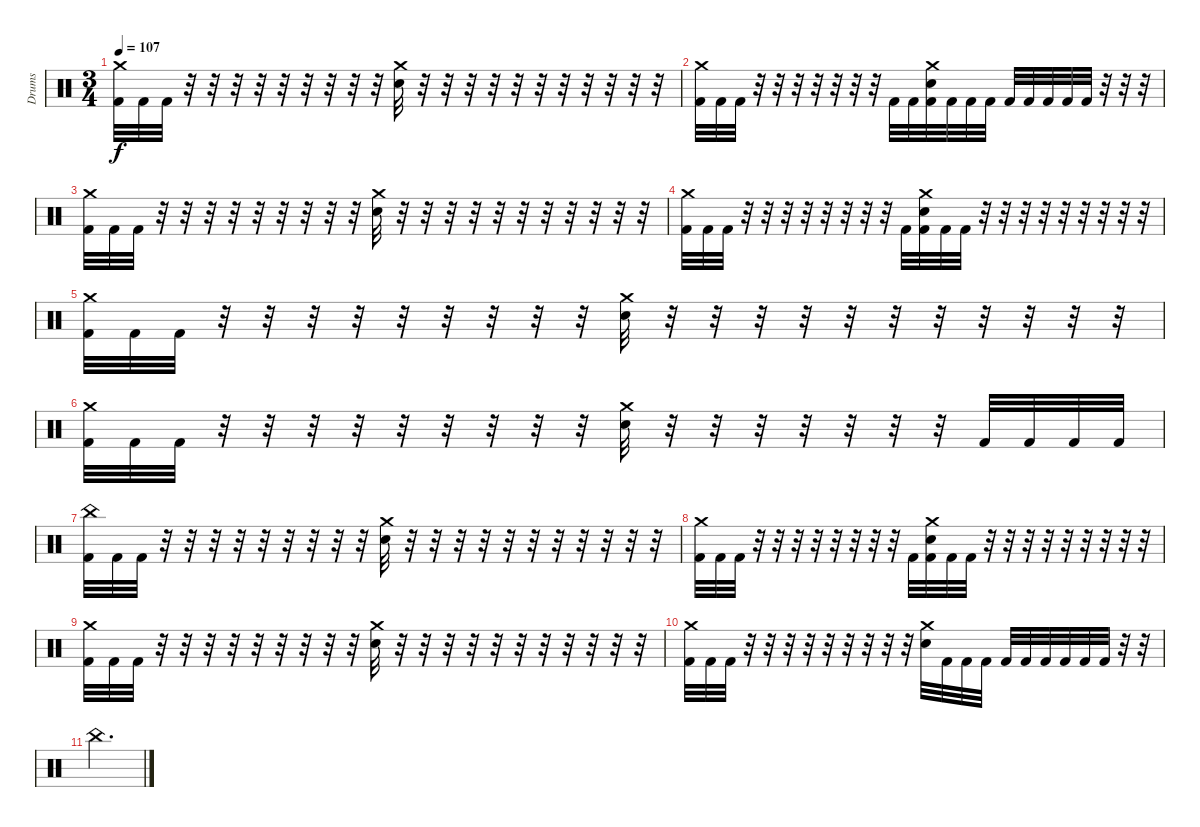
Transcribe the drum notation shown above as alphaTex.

\track ("Drums" "Drums") {instrument percussion}
\staff {score}
\articulation defaults
\ts (3 4)
\tempo 107
\clef neutral
\ks c
("Crash medium (hit)" "Kick (hit) 2").32{dy f} "Kick (hit) 2".32 "Kick (hit) 2".32 r.32 r.32 r.32 r.32 r.32 r.32 r.32 r.32 r.32 ("Crash medium (hit)" "Electric Snare (hit)").32 r.32 r.32 r.32 r.32 r.32 r.32 r.32 r.32 r.32 r.32 r.32 |
("Crash medium (hit)" "Kick (hit) 2").32 "Kick (hit) 2".32 "Kick (hit) 2".32 r.32 r.32 r.32 r.32 r.32 r.32 r.32 "Kick (hit) 2".32 "Kick (hit) 2".32 ("Crash medium (hit)" "Electric Snare (hit)" "Kick (hit) 2").32 "Kick (hit) 2".32 "Kick (hit) 2".32 "Kick (hit) 2".32 "Kick (hit) 2".32 "Kick (hit) 2".32 "Kick (hit) 2".32 "Kick (hit) 2".32 "Kick (hit) 2".32 r.32 r.32 r.32 |
("Crash medium (hit)" "Kick (hit) 2").32 "Kick (hit) 2".32 "Kick (hit) 2".32 r.32 r.32 r.32 r.32 r.32 r.32 r.32 r.32 r.32 ("Crash medium (hit)" "Electric Snare (hit)").32 r.32 r.32 r.32 r.32 r.32 r.32 r.32 r.32 r.32 r.32 r.32 |
("Crash medium (hit)" "Kick (hit) 2").32 "Kick (hit) 2".32 "Kick (hit) 2".32 r.32 r.32 r.32 r.32 r.32 r.32 r.32 r.32 "Kick (hit) 2".32 ("Crash medium (hit)" "Electric Snare (hit)" "Kick (hit) 2").32 "Kick (hit) 2".32 "Kick (hit) 2".32 r.32 r.32 r.32 r.32 r.32 r.32 r.32 r.32 r.32 |
("Crash medium (hit)" "Kick (hit) 2").32 "Kick (hit) 2".32 "Kick (hit) 2".32 r.32 r.32 r.32 r.32 r.32 r.32 r.32 r.32 r.32 ("Crash medium (hit)" "Electric Snare (hit)").32 r.32 r.32 r.32 r.32 r.32 r.32 r.32 r.32 r.32 r.32 r.32 |
("Crash medium (hit)" "Kick (hit) 2").32 "Kick (hit) 2".32 "Kick (hit) 2".32 r.32 r.32 r.32 r.32 r.32 r.32 r.32 r.32 r.32 ("Crash medium (hit)" "Electric Snare (hit)").32 r.32 r.32 r.32 r.32 r.32 r.32 r.32 "Kick (hit) 2".32 "Kick (hit) 2".32 "Kick (hit) 2".32 "Kick (hit) 2".32 |
("China (hit)" "Kick (hit) 2").32 "Kick (hit) 2".32 "Kick (hit) 2".32 r.32 r.32 r.32 r.32 r.32 r.32 r.32 r.32 r.32 ("Crash medium (hit)" "Electric Snare (hit)").32 r.32 r.32 r.32 r.32 r.32 r.32 r.32 r.32 r.32 r.32 r.32 |
("Crash medium (hit)" "Kick (hit) 2").32 "Kick (hit) 2".32 "Kick (hit) 2".32 r.32 r.32 r.32 r.32 r.32 r.32 r.32 r.32 "Kick (hit) 2".32 ("Crash medium (hit)" "Electric Snare (hit)" "Kick (hit) 2").32 "Kick (hit) 2".32 "Kick (hit) 2".32 r.32 r.32 r.32 r.32 r.32 r.32 r.32 r.32 r.32 |
("Crash medium (hit)" "Kick (hit) 2").32 "Kick (hit) 2".32 "Kick (hit) 2".32 r.32 r.32 r.32 r.32 r.32 r.32 r.32 r.32 r.32 ("Crash medium (hit)" "Electric Snare (hit)").32 r.32 r.32 r.32 r.32 r.32 r.32 r.32 r.32 r.32 r.32 r.32 |
("Crash medium (hit)" "Kick (hit) 2").32 "Kick (hit) 2".32 "Kick (hit) 2".32 r.32 r.32 r.32 r.32 r.32 r.32 r.32 r.32 r.32 ("Crash medium (hit)" "Electric Snare (hit)").32 "Kick (hit) 2".32 "Kick (hit) 2".32 "Kick (hit) 2".32 "Kick (hit) 2".32 "Kick (hit) 2".32 "Kick (hit) 2".32 "Kick (hit) 2".32 "Kick (hit) 2".32 "Kick (hit) 2".32 r.32 r.32 |
"China (hit)".2{d}
